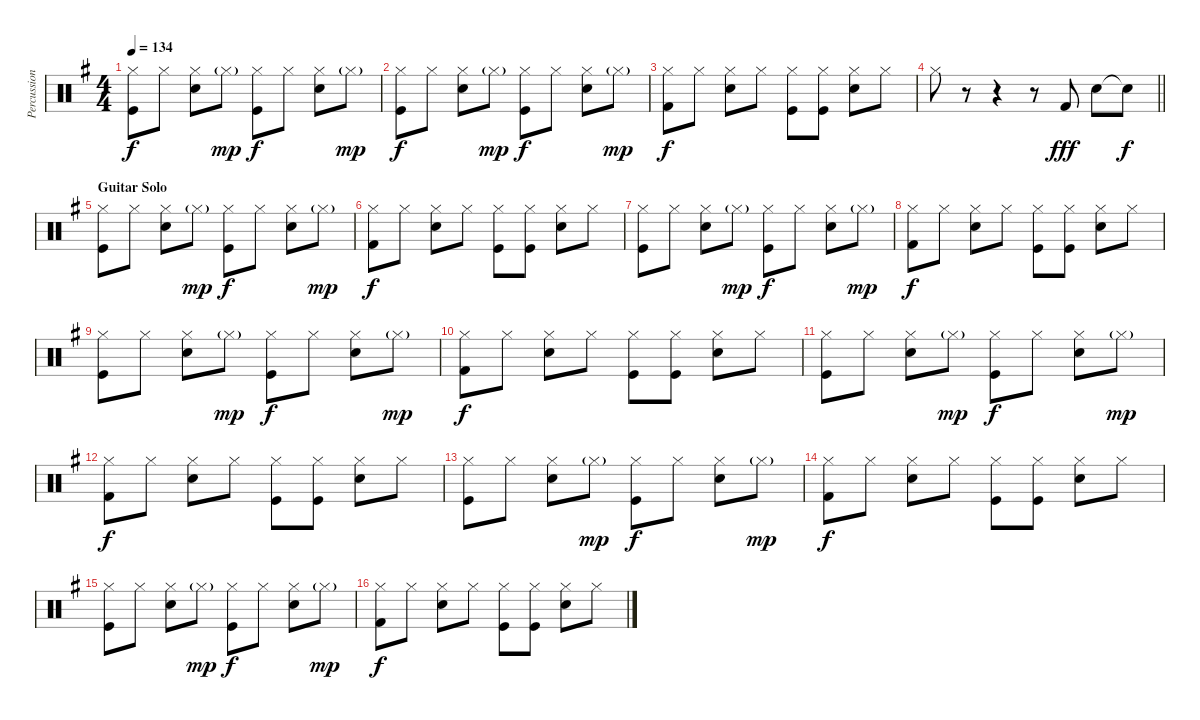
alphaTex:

\track ("Percussion" "Percussion") {instrument percussion}
\staff {score}
\articulation defaults
\ts (4 4)
\tempo 134
\clef neutral
\ks g
("Hi-Hat (closed)" "Kick (hit)").8{dy f} "Hi-Hat (closed)".8 ("Hi-Hat (closed)" "Snare (hit) 2").8 "Hi-Hat (closed)"{g}.8{dy mp} ("Hi-Hat (closed)" "Kick (hit)").8{dy f} "Hi-Hat (closed)".8 ("Hi-Hat (closed)" "Snare (hit) 2").8 "Hi-Hat (closed)"{g}.8{dy mp} |
("Hi-Hat (closed)" "Kick (hit)").8{dy f} "Hi-Hat (closed)".8 ("Hi-Hat (closed)" "Snare (hit) 2").8 "Hi-Hat (closed)"{g}.8{dy mp} ("Hi-Hat (closed)" "Kick (hit)").8{dy f} "Hi-Hat (closed)".8 ("Hi-Hat (closed)" "Snare (hit) 2").8 "Hi-Hat (closed)"{g}.8{dy mp} |
("Hi-Hat (closed)" "Kick (hit) 2").8{dy f} "Hi-Hat (closed)".8 ("Hi-Hat (closed)" "Snare (hit) 2").8 "Hi-Hat (closed)".8 ("Hi-Hat (closed)" "Kick (hit)").8 ("Hi-Hat (closed)" "Kick (hit)").8 ("Hi-Hat (closed)" "Snare (hit) 2").8 "Hi-Hat (closed)".8 |
\barLineRight lightlight "Hi-Hat (closed)".8
r.8 r.4 r.8 "Kick (hit) 2".8{dy fff} "Snare (hit) 2".8 "Snare (hit)"{t}.8{dy f} |
\section ("" "Guitar Solo")
("Hi-Hat (closed)" "Kick (hit)").8 "Hi-Hat (closed)".8 ("Hi-Hat (closed)" "Snare (hit) 2").8 "Hi-Hat (closed)"{g}.8{dy mp} ("Hi-Hat (closed)" "Kick (hit)").8{dy f} "Hi-Hat (closed)".8 ("Hi-Hat (closed)" "Snare (hit) 2").8 "Hi-Hat (closed)"{g}.8{dy mp} |
("Hi-Hat (closed)" "Kick (hit) 2").8{dy f} "Hi-Hat (closed)".8 ("Hi-Hat (closed)" "Snare (hit) 2").8 "Hi-Hat (closed)".8 ("Hi-Hat (closed)" "Kick (hit)").8 ("Hi-Hat (closed)" "Kick (hit)").8 ("Hi-Hat (closed)" "Snare (hit) 2").8 "Hi-Hat (closed)".8 |
("Hi-Hat (closed)" "Kick (hit)").8 "Hi-Hat (closed)".8 ("Hi-Hat (closed)" "Snare (hit) 2").8 "Hi-Hat (closed)"{g}.8{dy mp} ("Hi-Hat (closed)" "Kick (hit)").8{dy f} "Hi-Hat (closed)".8 ("Hi-Hat (closed)" "Snare (hit) 2").8 "Hi-Hat (closed)"{g}.8{dy mp} |
("Hi-Hat (closed)" "Kick (hit) 2").8{dy f} "Hi-Hat (closed)".8 ("Hi-Hat (closed)" "Snare (hit) 2").8 "Hi-Hat (closed)".8 ("Hi-Hat (closed)" "Kick (hit)").8 ("Hi-Hat (closed)" "Kick (hit)").8 ("Hi-Hat (closed)" "Snare (hit) 2").8 "Hi-Hat (closed)".8 |
("Hi-Hat (closed)" "Kick (hit)").8 "Hi-Hat (closed)".8 ("Hi-Hat (closed)" "Snare (hit) 2").8 "Hi-Hat (closed)"{g}.8{dy mp} ("Hi-Hat (closed)" "Kick (hit)").8{dy f} "Hi-Hat (closed)".8 ("Hi-Hat (closed)" "Snare (hit) 2").8 "Hi-Hat (closed)"{g}.8{dy mp} |
("Hi-Hat (closed)" "Kick (hit) 2").8{dy f} "Hi-Hat (closed)".8 ("Hi-Hat (closed)" "Snare (hit) 2").8 "Hi-Hat (closed)".8 ("Hi-Hat (closed)" "Kick (hit)").8 ("Hi-Hat (closed)" "Kick (hit)").8 ("Hi-Hat (closed)" "Snare (hit) 2").8 "Hi-Hat (closed)".8 |
("Hi-Hat (closed)" "Kick (hit)").8 "Hi-Hat (closed)".8 ("Hi-Hat (closed)" "Snare (hit) 2").8 "Hi-Hat (closed)"{g}.8{dy mp} ("Hi-Hat (closed)" "Kick (hit)").8{dy f} "Hi-Hat (closed)".8 ("Hi-Hat (closed)" "Snare (hit) 2").8 "Hi-Hat (closed)"{g}.8{dy mp} |
("Hi-Hat (closed)" "Kick (hit) 2").8{dy f} "Hi-Hat (closed)".8 ("Hi-Hat (closed)" "Snare (hit) 2").8 "Hi-Hat (closed)".8 ("Hi-Hat (closed)" "Kick (hit)").8 ("Hi-Hat (closed)" "Kick (hit)").8 ("Hi-Hat (closed)" "Snare (hit) 2").8 "Hi-Hat (closed)".8 |
("Hi-Hat (closed)" "Kick (hit)").8 "Hi-Hat (closed)".8 ("Hi-Hat (closed)" "Snare (hit) 2").8 "Hi-Hat (closed)"{g}.8{dy mp} ("Hi-Hat (closed)" "Kick (hit)").8{dy f} "Hi-Hat (closed)".8 ("Hi-Hat (closed)" "Snare (hit) 2").8 "Hi-Hat (closed)"{g}.8{dy mp} |
("Hi-Hat (closed)" "Kick (hit) 2").8{dy f} "Hi-Hat (closed)".8 ("Hi-Hat (closed)" "Snare (hit) 2").8 "Hi-Hat (closed)".8 ("Hi-Hat (closed)" "Kick (hit)").8 ("Hi-Hat (closed)" "Kick (hit)").8 ("Hi-Hat (closed)" "Snare (hit) 2").8 "Hi-Hat (closed)".8 |
("Hi-Hat (closed)" "Kick (hit)").8 "Hi-Hat (closed)".8 ("Hi-Hat (closed)" "Snare (hit) 2").8 "Hi-Hat (closed)"{g}.8{dy mp} ("Hi-Hat (closed)" "Kick (hit)").8{dy f} "Hi-Hat (closed)".8 ("Hi-Hat (closed)" "Snare (hit) 2").8 "Hi-Hat (closed)"{g}.8{dy mp} |
("Hi-Hat (closed)" "Kick (hit) 2").8{dy f} "Hi-Hat (closed)".8 ("Hi-Hat (closed)" "Snare (hit) 2").8 "Hi-Hat (closed)".8 ("Hi-Hat (closed)" "Kick (hit)").8 ("Hi-Hat (closed)" "Kick (hit)").8 ("Hi-Hat (closed)" "Snare (hit) 2").8 "Hi-Hat (closed)".8
